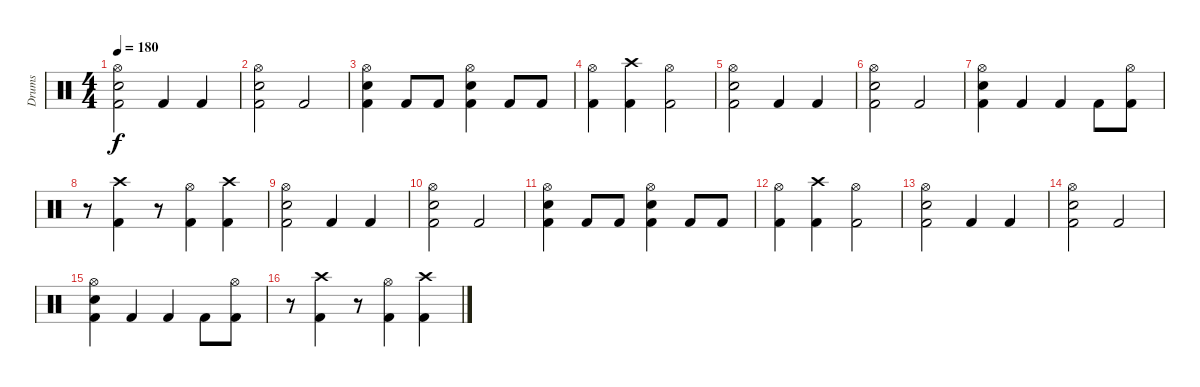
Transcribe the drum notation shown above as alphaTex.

\track ("Drums" "Drums") {instrument percussion}
\staff {score}
\articulation defaults
\ts (4 4)
\tempo 180
\clef neutral
\ks c
("Kick (hit) 2" "Snare (hit) 2" "Hi-Hat (open)").2{dy f} "Kick (hit) 2".4 "Kick (hit) 2".4 |
("Kick (hit) 2" "Snare (hit) 2" "Hi-Hat (open)").2 "Kick (hit) 2".2 |
("Kick (hit) 2" "Snare (hit) 2" "Hi-Hat (open)").4 "Kick (hit) 2".8 "Kick (hit) 2".8 ("Kick (hit) 2" "Snare (hit) 2" "Hi-Hat (open)").4 "Kick (hit) 2".8 "Kick (hit) 2".8 |
("Kick (hit) 2" "Hi-Hat (open)").4 ("Kick (hit) 2" "Crash high (hit)").4 ("Kick (hit) 2" "Hi-Hat (open)").2 |
("Kick (hit) 2" "Snare (hit) 2" "Hi-Hat (open)").2 "Kick (hit) 2".4 "Kick (hit) 2".4 |
("Kick (hit) 2" "Snare (hit) 2" "Hi-Hat (open)").2 "Kick (hit) 2".2 |
("Kick (hit) 2" "Snare (hit) 2" "Hi-Hat (open)").4 "Kick (hit) 2".4 "Kick (hit) 2".4 "Kick (hit) 2".8 ("Kick (hit) 2" "Hi-Hat (open)").8 |
r.8 ("Kick (hit) 2" "Crash high (hit)").4 r.8 ("Kick (hit) 2" "Hi-Hat (open)").4 ("Kick (hit) 2" "Crash high (hit)").4 |
("Kick (hit) 2" "Snare (hit) 2" "Hi-Hat (open)").2 "Kick (hit) 2".4 "Kick (hit) 2".4 |
("Kick (hit) 2" "Snare (hit) 2" "Hi-Hat (open)").2 "Kick (hit) 2".2 |
("Kick (hit) 2" "Snare (hit) 2" "Hi-Hat (open)").4 "Kick (hit) 2".8 "Kick (hit) 2".8 ("Kick (hit) 2" "Snare (hit) 2" "Hi-Hat (open)").4 "Kick (hit) 2".8 "Kick (hit) 2".8 |
("Kick (hit) 2" "Hi-Hat (open)").4 ("Kick (hit) 2" "Crash high (hit)").4 ("Kick (hit) 2" "Hi-Hat (open)").2 |
("Kick (hit) 2" "Snare (hit) 2" "Hi-Hat (open)").2 "Kick (hit) 2".4 "Kick (hit) 2".4 |
("Kick (hit) 2" "Snare (hit) 2" "Hi-Hat (open)").2 "Kick (hit) 2".2 |
("Kick (hit) 2" "Snare (hit) 2" "Hi-Hat (open)").4 "Kick (hit) 2".4 "Kick (hit) 2".4 "Kick (hit) 2".8 ("Kick (hit) 2" "Hi-Hat (open)").8 |
r.8 ("Kick (hit) 2" "Crash high (hit)").4 r.8 ("Kick (hit) 2" "Hi-Hat (open)").4 ("Kick (hit) 2" "Crash high (hit)").4
